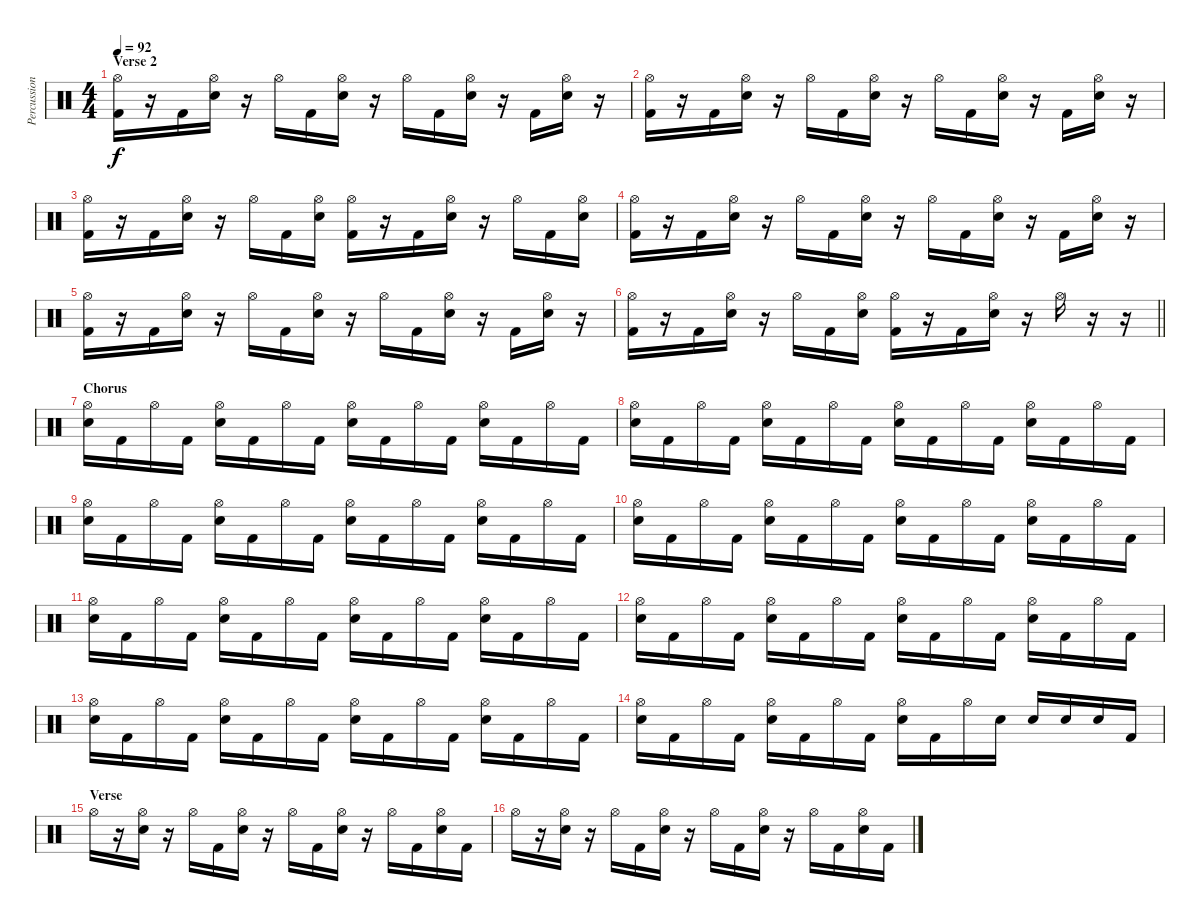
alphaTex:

\track ("Percussion" "Percussion") {instrument percussion}
\staff {score}
\articulation defaults
\ts (4 4)
\section ("" "Verse 2")
\tempo 92
\clef neutral
\ks c
("Hi-Hat (open)" "Kick (hit) 2").16{dy f} r.16 "Kick (hit) 2".16 ("Hi-Hat (open)" "Electric Snare (hit)").16 r.16 "Hi-Hat (open)".16 "Kick (hit) 2".16 ("Hi-Hat (open)" "Electric Snare (hit)").16 r.16 "Hi-Hat (open)".16 "Kick (hit) 2".16 ("Hi-Hat (open)" "Electric Snare (hit)").16 r.16 "Kick (hit) 2".16 ("Hi-Hat (open)" "Electric Snare (hit)").16 r.16 |
("Hi-Hat (open)" "Kick (hit) 2").16 r.16 "Kick (hit) 2".16 ("Hi-Hat (open)" "Electric Snare (hit)").16 r.16 "Hi-Hat (open)".16 "Kick (hit) 2".16 ("Hi-Hat (open)" "Electric Snare (hit)").16 r.16 "Hi-Hat (open)".16 "Kick (hit) 2".16 ("Hi-Hat (open)" "Electric Snare (hit)").16 r.16 "Kick (hit) 2".16 ("Hi-Hat (open)" "Electric Snare (hit)").16 r.16 |
("Hi-Hat (open)" "Kick (hit) 2").16 r.16 "Kick (hit) 2".16 ("Hi-Hat (open)" "Electric Snare (hit)").16 r.16 "Hi-Hat (open)".16 "Kick (hit) 2".16 ("Hi-Hat (open)" "Electric Snare (hit)").16 ("Hi-Hat (open)" "Kick (hit) 2").16 r.16 "Kick (hit) 2".16 ("Hi-Hat (open)" "Electric Snare (hit)").16 r.16 "Hi-Hat (open)".16 "Kick (hit) 2".16 ("Hi-Hat (open)" "Electric Snare (hit)").16 |
("Hi-Hat (open)" "Kick (hit) 2").16 r.16 "Kick (hit) 2".16 ("Hi-Hat (open)" "Electric Snare (hit)").16 r.16 "Hi-Hat (open)".16 "Kick (hit) 2".16 ("Hi-Hat (open)" "Electric Snare (hit)").16 r.16 "Hi-Hat (open)".16 "Kick (hit) 2".16 ("Hi-Hat (open)" "Electric Snare (hit)").16 r.16 "Kick (hit) 2".16 ("Hi-Hat (open)" "Electric Snare (hit)").16 r.16 |
("Hi-Hat (open)" "Kick (hit) 2").16 r.16 "Kick (hit) 2".16 ("Hi-Hat (open)" "Electric Snare (hit)").16 r.16 "Hi-Hat (open)".16 "Kick (hit) 2".16 ("Hi-Hat (open)" "Electric Snare (hit)").16 r.16 "Hi-Hat (open)".16 "Kick (hit) 2".16 ("Hi-Hat (open)" "Electric Snare (hit)").16 r.16 "Kick (hit) 2".16 ("Hi-Hat (open)" "Electric Snare (hit)").16 r.16 |
\barLineRight lightlight
("Hi-Hat (open)" "Kick (hit) 2").16 r.16 "Kick (hit) 2".16 ("Hi-Hat (open)" "Electric Snare (hit)").16 r.16 "Hi-Hat (open)".16 "Kick (hit) 2".16 ("Hi-Hat (open)" "Electric Snare (hit)").16 ("Hi-Hat (open)" "Kick (hit) 2").16 r.16 "Kick (hit) 2".16 ("Hi-Hat (open)" "Electric Snare (hit)").16 r.16 "Hi-Hat (open)".16 r.16 r.16 |
\section ("" "Chorus")
("Hi-Hat (open)" "Electric Snare (hit)").16 "Kick (hit) 2".16 "Hi-Hat (open)".16 "Kick (hit) 2".16 ("Hi-Hat (open)" "Electric Snare (hit)").16 "Kick (hit) 2".16 "Hi-Hat (open)".16 "Kick (hit) 2".16 ("Hi-Hat (open)" "Electric Snare (hit)").16 "Kick (hit) 2".16 "Hi-Hat (open)".16 "Kick (hit) 2".16 ("Hi-Hat (open)" "Electric Snare (hit)").16 "Kick (hit) 2".16 "Hi-Hat (open)".16 "Kick (hit) 2".16 |
("Hi-Hat (open)" "Electric Snare (hit)").16 "Kick (hit) 2".16 "Hi-Hat (open)".16 "Kick (hit) 2".16 ("Hi-Hat (open)" "Electric Snare (hit)").16 "Kick (hit) 2".16 "Hi-Hat (open)".16 "Kick (hit) 2".16 ("Hi-Hat (open)" "Electric Snare (hit)").16 "Kick (hit) 2".16 "Hi-Hat (open)".16 "Kick (hit) 2".16 ("Hi-Hat (open)" "Electric Snare (hit)").16 "Kick (hit) 2".16 "Hi-Hat (open)".16 "Kick (hit) 2".16 |
("Hi-Hat (open)" "Electric Snare (hit)").16 "Kick (hit) 2".16 "Hi-Hat (open)".16 "Kick (hit) 2".16 ("Hi-Hat (open)" "Electric Snare (hit)").16 "Kick (hit) 2".16 "Hi-Hat (open)".16 "Kick (hit) 2".16 ("Hi-Hat (open)" "Electric Snare (hit)").16 "Kick (hit) 2".16 "Hi-Hat (open)".16 "Kick (hit) 2".16 ("Hi-Hat (open)" "Electric Snare (hit)").16 "Kick (hit) 2".16 "Hi-Hat (open)".16 "Kick (hit) 2".16 |
("Hi-Hat (open)" "Electric Snare (hit)").16 "Kick (hit) 2".16 "Hi-Hat (open)".16 "Kick (hit) 2".16 ("Hi-Hat (open)" "Electric Snare (hit)").16 "Kick (hit) 2".16 "Hi-Hat (open)".16 "Kick (hit) 2".16 ("Hi-Hat (open)" "Electric Snare (hit)").16 "Kick (hit) 2".16 "Hi-Hat (open)".16 "Kick (hit) 2".16 ("Hi-Hat (open)" "Electric Snare (hit)").16 "Kick (hit) 2".16 "Hi-Hat (open)".16 "Kick (hit) 2".16 |
("Hi-Hat (open)" "Electric Snare (hit)").16 "Kick (hit) 2".16 "Hi-Hat (open)".16 "Kick (hit) 2".16 ("Hi-Hat (open)" "Electric Snare (hit)").16 "Kick (hit) 2".16 "Hi-Hat (open)".16 "Kick (hit) 2".16 ("Hi-Hat (open)" "Electric Snare (hit)").16 "Kick (hit) 2".16 "Hi-Hat (open)".16 "Kick (hit) 2".16 ("Hi-Hat (open)" "Electric Snare (hit)").16 "Kick (hit) 2".16 "Hi-Hat (open)".16 "Kick (hit) 2".16 |
("Hi-Hat (open)" "Electric Snare (hit)").16 "Kick (hit) 2".16 "Hi-Hat (open)".16 "Kick (hit) 2".16 ("Hi-Hat (open)" "Electric Snare (hit)").16 "Kick (hit) 2".16 "Hi-Hat (open)".16 "Kick (hit) 2".16 ("Hi-Hat (open)" "Electric Snare (hit)").16 "Kick (hit) 2".16 "Hi-Hat (open)".16 "Kick (hit) 2".16 ("Hi-Hat (open)" "Electric Snare (hit)").16 "Kick (hit) 2".16 "Hi-Hat (open)".16 "Kick (hit) 2".16 |
("Hi-Hat (open)" "Electric Snare (hit)").16 "Kick (hit) 2".16 "Hi-Hat (open)".16 "Kick (hit) 2".16 ("Hi-Hat (open)" "Electric Snare (hit)").16 "Kick (hit) 2".16 "Hi-Hat (open)".16 "Kick (hit) 2".16 ("Hi-Hat (open)" "Electric Snare (hit)").16 "Kick (hit) 2".16 "Hi-Hat (open)".16 "Kick (hit) 2".16 ("Hi-Hat (open)" "Electric Snare (hit)").16 "Kick (hit) 2".16 "Hi-Hat (open)".16 "Kick (hit) 2".16 |
("Hi-Hat (open)" "Electric Snare (hit)").16 "Kick (hit) 2".16 "Hi-Hat (open)".16 "Kick (hit) 2".16 ("Hi-Hat (open)" "Electric Snare (hit)").16 "Kick (hit) 2".16 "Hi-Hat (open)".16 "Kick (hit) 2".16 ("Hi-Hat (open)" "Electric Snare (hit)").16 "Kick (hit) 2".16 "Hi-Hat (open)".16 "Electric Snare (hit)".16 "Electric Snare (hit)".16 "Electric Snare (hit)".16 "Electric Snare (hit)".16 "Kick (hit) 2".16 |
\section ("" "Verse")
"Hi-Hat (open)".16 r.16 ("Hi-Hat (open)" "Electric Snare (hit)").16 r.16 "Hi-Hat (open)".16 "Kick (hit) 2".16 ("Hi-Hat (open)" "Electric Snare (hit)").16 r.16 "Hi-Hat (open)".16 "Kick (hit) 2".16 ("Hi-Hat (open)" "Electric Snare (hit)").16 r.16 "Hi-Hat (open)".16 "Kick (hit) 2".16 ("Hi-Hat (open)" "Electric Snare (hit)").16 "Kick (hit) 2".16 |
"Hi-Hat (open)".16 r.16 ("Hi-Hat (open)" "Electric Snare (hit)").16 r.16 "Hi-Hat (open)".16 "Kick (hit) 2".16 ("Hi-Hat (open)" "Electric Snare (hit)").16 r.16 "Hi-Hat (open)".16 "Kick (hit) 2".16 ("Hi-Hat (open)" "Electric Snare (hit)").16 r.16 "Hi-Hat (open)".16 "Kick (hit) 2".16 ("Hi-Hat (open)" "Electric Snare (hit)").16 "Kick (hit) 2".16
